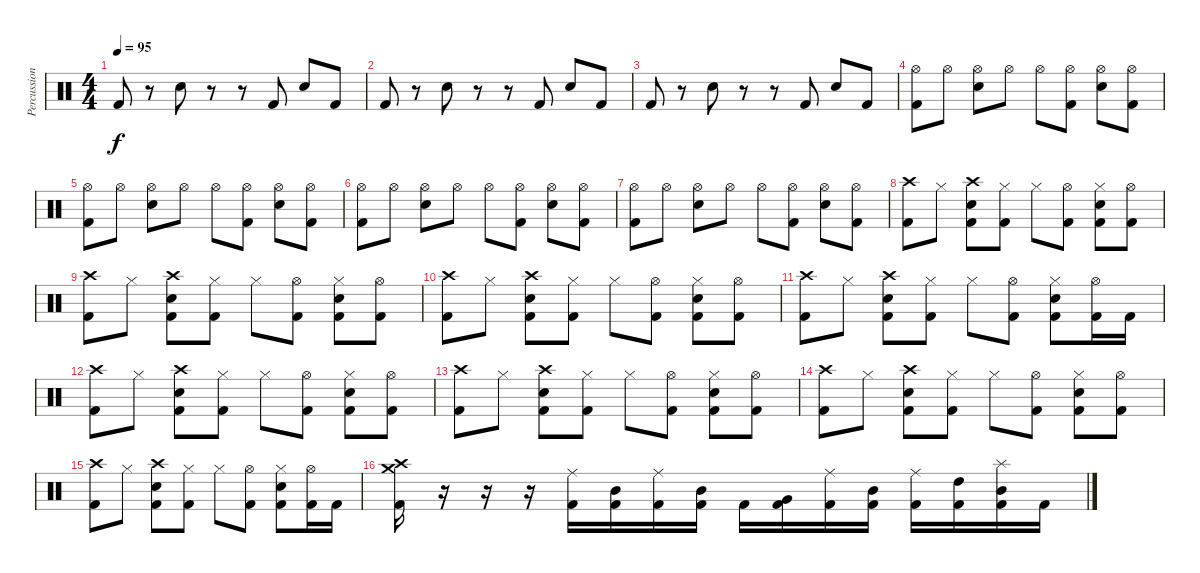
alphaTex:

\track ("Percussion" "Percussion") {instrument percussion}
\staff {score}
\articulation defaults
\ts (4 4)
\tempo 95
\clef neutral
\ks c "Kick (hit) 2".8{dy f}
r.8 "Snare (hit) 2".8 r.8 r.8 "Kick (hit) 2".8 "Snare (hit) 2".8 "Kick (hit) 2".8 |
"Kick (hit) 2".8 r.8 "Snare (hit) 2".8 r.8 r.8 "Kick (hit) 2".8 "Snare (hit) 2".8 "Kick (hit) 2".8 |
"Kick (hit) 2".8 r.8 "Snare (hit) 2".8 r.8 r.8 "Kick (hit) 2".8 "Snare (hit) 2".8 "Kick (hit) 2".8 |
("Hi-Hat (open)" "Kick (hit) 2").8 "Hi-Hat (open)".8 ("Hi-Hat (open)" "Snare (hit) 2").8 "Hi-Hat (open)".8 "Hi-Hat (open)".8 ("Hi-Hat (open)" "Kick (hit) 2").8 ("Hi-Hat (open)" "Snare (hit) 2").8 ("Hi-Hat (open)" "Kick (hit) 2").8 |
("Hi-Hat (open)" "Kick (hit) 2").8 "Hi-Hat (open)".8 ("Hi-Hat (open)" "Snare (hit) 2").8 "Hi-Hat (open)".8 "Hi-Hat (open)".8 ("Hi-Hat (open)" "Kick (hit) 2").8 ("Hi-Hat (open)" "Snare (hit) 2").8 ("Hi-Hat (open)" "Kick (hit) 2").8 |
("Hi-Hat (open)" "Kick (hit) 2").8 "Hi-Hat (open)".8 ("Hi-Hat (open)" "Snare (hit) 2").8 "Hi-Hat (open)".8 "Hi-Hat (open)".8 ("Hi-Hat (open)" "Kick (hit) 2").8 ("Hi-Hat (open)" "Snare (hit) 2").8 ("Hi-Hat (open)" "Kick (hit) 2").8 |
("Hi-Hat (open)" "Kick (hit) 2").8 "Hi-Hat (open)".8 ("Hi-Hat (open)" "Snare (hit) 2").8 "Hi-Hat (open)".8 "Hi-Hat (open)".8 ("Hi-Hat (open)" "Kick (hit) 2").8 ("Hi-Hat (open)" "Snare (hit) 2").8 ("Hi-Hat (open)" "Kick (hit) 2").8 |
("Crash high (hit)" "Kick (hit) 2").8 "Hi-Hat (closed)".8 ("Crash high (hit)" "Snare (hit) 2" "Kick (hit) 2").8 ("Hi-Hat (closed)" "Kick (hit) 2").8 "Hi-Hat (closed)".8 ("Hi-Hat (open)" "Kick (hit) 2").8 ("Hi-Hat (closed)" "Snare (hit) 2" "Kick (hit) 2").8 ("Hi-Hat (open)" "Kick (hit) 2").8 |
("Crash high (hit)" "Kick (hit) 2").8 "Hi-Hat (closed)".8 ("Crash high (hit)" "Snare (hit) 2" "Kick (hit) 2").8 ("Hi-Hat (closed)" "Kick (hit) 2").8 "Hi-Hat (closed)".8 ("Hi-Hat (open)" "Kick (hit) 2").8 ("Hi-Hat (closed)" "Snare (hit) 2" "Kick (hit) 2").8 ("Hi-Hat (open)" "Kick (hit) 2").8 |
("Crash high (hit)" "Kick (hit) 2").8 "Hi-Hat (closed)".8 ("Crash high (hit)" "Snare (hit) 2" "Kick (hit) 2").8 ("Hi-Hat (closed)" "Kick (hit) 2").8 "Hi-Hat (closed)".8 ("Hi-Hat (open)" "Kick (hit) 2").8 ("Hi-Hat (closed)" "Snare (hit) 2" "Kick (hit) 2").8 ("Hi-Hat (open)" "Kick (hit) 2").8 |
("Crash high (hit)" "Kick (hit) 2").8 "Hi-Hat (closed)".8 ("Crash high (hit)" "Snare (hit) 2" "Kick (hit) 2").8 ("Hi-Hat (closed)" "Kick (hit) 2").8 "Hi-Hat (closed)".8 ("Hi-Hat (open)" "Kick (hit) 2").8 ("Hi-Hat (closed)" "Snare (hit) 2" "Kick (hit) 2").8 ("Hi-Hat (open)" "Kick (hit) 2").16 "Kick (hit) 2".16 |
("Crash high (hit)" "Kick (hit) 2").8 "Hi-Hat (closed)".8 ("Crash high (hit)" "Snare (hit) 2" "Kick (hit) 2").8 ("Hi-Hat (closed)" "Kick (hit) 2").8 "Hi-Hat (closed)".8 ("Hi-Hat (open)" "Kick (hit) 2").8 ("Hi-Hat (closed)" "Snare (hit) 2" "Kick (hit) 2").8 ("Hi-Hat (open)" "Kick (hit) 2").8 |
("Crash high (hit)" "Kick (hit) 2").8 "Hi-Hat (closed)".8 ("Crash high (hit)" "Snare (hit) 2" "Kick (hit) 2").8 ("Hi-Hat (closed)" "Kick (hit) 2").8 "Hi-Hat (closed)".8 ("Hi-Hat (open)" "Kick (hit) 2").8 ("Hi-Hat (closed)" "Snare (hit) 2" "Kick (hit) 2").8 ("Hi-Hat (open)" "Kick (hit) 2").8 |
("Crash high (hit)" "Kick (hit) 2").8 "Hi-Hat (closed)".8 ("Crash high (hit)" "Snare (hit) 2" "Kick (hit) 2").8 ("Hi-Hat (closed)" "Kick (hit) 2").8 "Hi-Hat (closed)".8 ("Hi-Hat (open)" "Kick (hit) 2").8 ("Hi-Hat (closed)" "Snare (hit) 2" "Kick (hit) 2").8 ("Hi-Hat (open)" "Kick (hit) 2").8 |
("Crash high (hit)" "Kick (hit) 2").8 "Hi-Hat (closed)".8 ("Crash high (hit)" "Snare (hit) 2" "Kick (hit) 2").8 ("Hi-Hat (closed)" "Kick (hit) 2").8 "Hi-Hat (closed)".8 ("Hi-Hat (open)" "Kick (hit) 2").8 ("Hi-Hat (closed)" "Snare (hit) 2" "Kick (hit) 2").8 ("Hi-Hat (open)" "Kick (hit) 2").16 "Kick (hit) 2".16 |
("Crash medium (hit)" "Crash high (hit)" "Kick (hit) 2").16 r.16 r.16 r.16 ("Ride (middle)" "Kick (hit) 2").16 ("Mid Tom (hit)" "Kick (hit) 2").16 ("Ride (middle)" "Kick (hit) 2").16 ("Mid Tom (hit)" "Kick (hit) 2").16 "Kick (hit) 2".16 ("Very Low Tom (hit)" "Kick (hit) 2").16 ("Ride (middle)" "Kick (hit) 2").16 ("Mid Tom (hit)" "Kick (hit) 2").16 ("Ride (middle)" "Kick (hit) 2").16 ("High Tom (hit)" "Kick (hit) 2").16 ("Splash (hit)" "Mid Tom (hit)" "Kick (hit) 2").16 "Kick (hit) 2".16
